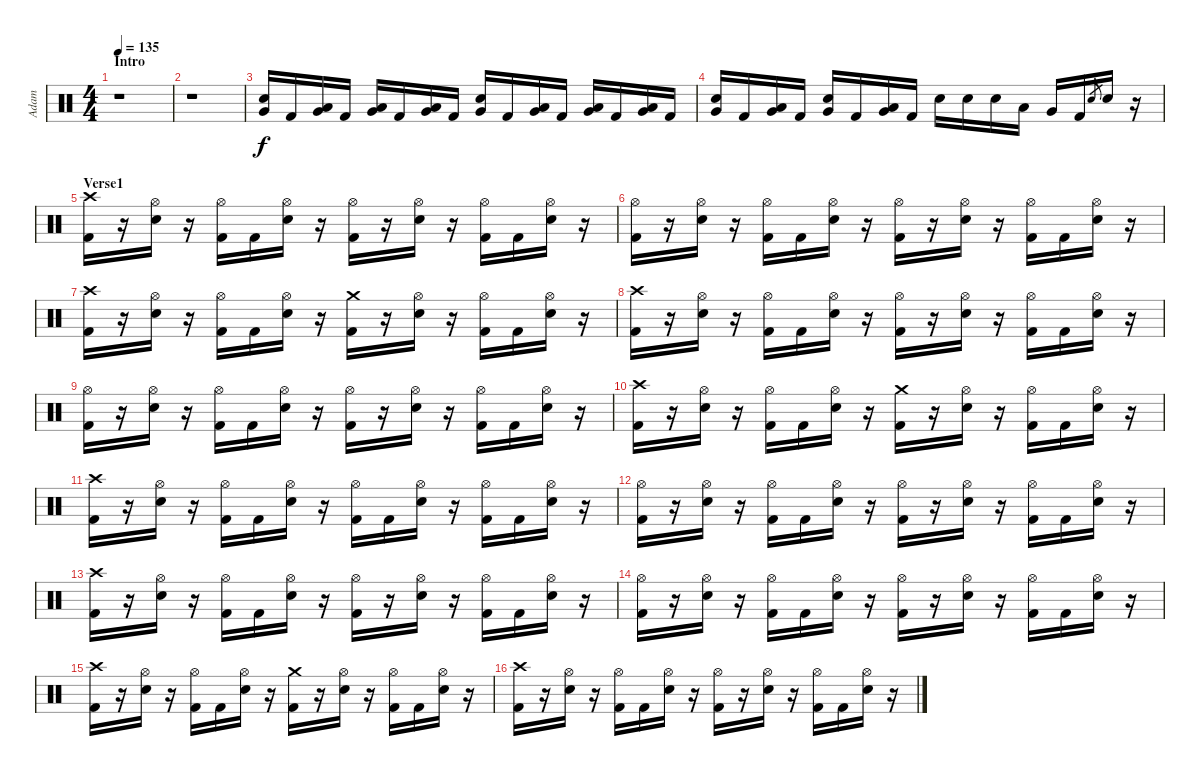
\track ("Adam" "Adam") {instrument percussion}
\staff {score}
\articulation defaults
\ts (4 4)
\section ("" "Intro")
\tempo 135
\clef neutral
\ks c
r.1{dy f} |
r.1 |
("Electric Snare (hit)" "Very Low Tom (hit)").16 "Kick (hit) 2".16 ("Low Tom (hit)" "Very Low Tom (hit)").16 "Kick (hit) 2".16 ("Low Tom (hit)" "Very Low Tom (hit)").16 "Kick (hit) 2".16 ("Low Tom (hit)" "Very Low Tom (hit)").16 "Kick (hit) 2".16 ("Electric Snare (hit)" "Very Low Tom (hit)").16 "Kick (hit) 2".16 ("Low Tom (hit)" "Very Low Tom (hit)").16 "Kick (hit) 2".16 ("Low Tom (hit)" "Very Low Tom (hit)").16 "Kick (hit) 2".16 ("Low Tom (hit)" "Very Low Tom (hit)").16 "Kick (hit) 2".16 |
("Electric Snare (hit)" "Very Low Tom (hit)").16 "Kick (hit) 2".16 ("Low Tom (hit)" "Very Low Tom (hit)").16 "Kick (hit) 2".16 ("Electric Snare (hit)" "Very Low Tom (hit)").16 "Kick (hit) 2".16 ("Low Tom (hit)" "Very Low Tom (hit)").16 "Kick (hit) 2".16 "Electric Snare (hit)".16 "Electric Snare (hit)".16 "Electric Snare (hit)".16 "Low Tom (hit)".16 "Very Low Tom (hit)".16 "Kick (hit) 2".16 "Electric Snare (hit)".8{gr} "Electric Snare (hit)".16 r.16 |
\section ("" "Verse1")
("Crash high (hit)" "Kick (hit) 2").16 r.16 ("Hi-Hat (open)" "Electric Snare (hit)").16 r.16 ("Hi-Hat (open)" "Kick (hit) 2").16 "Kick (hit) 2".16 ("Hi-Hat (open)" "Electric Snare (hit)").16 r.16 ("Hi-Hat (open)" "Kick (hit) 2").16 r.16 ("Hi-Hat (open)" "Electric Snare (hit)").16 r.16 ("Hi-Hat (open)" "Kick (hit) 2").16 "Kick (hit) 2".16 ("Hi-Hat (open)" "Electric Snare (hit)").16 r.16 |
("Hi-Hat (open)" "Kick (hit) 2").16 r.16 ("Hi-Hat (open)" "Electric Snare (hit)").16 r.16 ("Hi-Hat (open)" "Kick (hit) 2").16 "Kick (hit) 2".16 ("Hi-Hat (open)" "Electric Snare (hit)").16 r.16 ("Hi-Hat (open)" "Kick (hit) 2").16 r.16 ("Hi-Hat (open)" "Electric Snare (hit)").16 r.16 ("Hi-Hat (open)" "Kick (hit) 2").16 "Kick (hit) 2".16 ("Hi-Hat (open)" "Electric Snare (hit)").16 r.16 |
("Crash high (hit)" "Kick (hit) 2").16 r.16 ("Hi-Hat (open)" "Electric Snare (hit)").16 r.16 ("Hi-Hat (open)" "Kick (hit) 2").16 "Kick (hit) 2".16 ("Hi-Hat (open)" "Electric Snare (hit)").16 r.16 ("Crash medium (hit)" "Kick (hit) 2").16 r.16 ("Hi-Hat (open)" "Electric Snare (hit)").16 r.16 ("Hi-Hat (open)" "Kick (hit) 2").16 "Kick (hit) 2".16 ("Hi-Hat (open)" "Electric Snare (hit)").16 r.16 |
("Crash high (hit)" "Kick (hit) 2").16 r.16 ("Hi-Hat (open)" "Electric Snare (hit)").16 r.16 ("Hi-Hat (open)" "Kick (hit) 2").16 "Kick (hit) 2".16 ("Hi-Hat (open)" "Electric Snare (hit)").16 r.16 ("Hi-Hat (open)" "Kick (hit) 2").16 r.16 ("Hi-Hat (open)" "Electric Snare (hit)").16 r.16 ("Hi-Hat (open)" "Kick (hit) 2").16 "Kick (hit) 2".16 ("Hi-Hat (open)" "Electric Snare (hit)").16 r.16 |
("Hi-Hat (open)" "Kick (hit) 2").16 r.16 ("Hi-Hat (open)" "Electric Snare (hit)").16 r.16 ("Hi-Hat (open)" "Kick (hit) 2").16 "Kick (hit) 2".16 ("Hi-Hat (open)" "Electric Snare (hit)").16 r.16 ("Hi-Hat (open)" "Kick (hit) 2").16 r.16 ("Hi-Hat (open)" "Electric Snare (hit)").16 r.16 ("Hi-Hat (open)" "Kick (hit) 2").16 "Kick (hit) 2".16 ("Hi-Hat (open)" "Electric Snare (hit)").16 r.16 |
("Crash high (hit)" "Kick (hit) 2").16 r.16 ("Hi-Hat (open)" "Electric Snare (hit)").16 r.16 ("Hi-Hat (open)" "Kick (hit) 2").16 "Kick (hit) 2".16 ("Hi-Hat (open)" "Electric Snare (hit)").16 r.16 ("Crash medium (hit)" "Kick (hit) 2").16 r.16 ("Hi-Hat (open)" "Electric Snare (hit)").16 r.16 ("Hi-Hat (open)" "Kick (hit) 2").16 "Kick (hit) 2".16 ("Hi-Hat (open)" "Electric Snare (hit)").16 r.16 |
("Crash high (hit)" "Kick (hit) 2").16 r.16 ("Hi-Hat (open)" "Electric Snare (hit)").16 r.16 ("Hi-Hat (open)" "Kick (hit) 2").16 "Kick (hit) 2".16 ("Hi-Hat (open)" "Electric Snare (hit)").16 r.16 ("Hi-Hat (open)" "Kick (hit) 2").16 "Kick (hit) 2".16 ("Hi-Hat (open)" "Electric Snare (hit)").16 r.16 ("Hi-Hat (open)" "Kick (hit) 2").16 "Kick (hit) 2".16 ("Hi-Hat (open)" "Electric Snare (hit)").16 r.16 |
("Hi-Hat (open)" "Kick (hit) 2").16 r.16 ("Hi-Hat (open)" "Electric Snare (hit)").16 r.16 ("Hi-Hat (open)" "Kick (hit) 2").16 "Kick (hit) 2".16 ("Hi-Hat (open)" "Electric Snare (hit)").16 r.16 ("Hi-Hat (open)" "Kick (hit) 2").16 r.16 ("Hi-Hat (open)" "Electric Snare (hit)").16 r.16 ("Hi-Hat (open)" "Kick (hit) 2").16 "Kick (hit) 2".16 ("Hi-Hat (open)" "Electric Snare (hit)").16 r.16 |
("Crash high (hit)" "Kick (hit) 2").16 r.16 ("Hi-Hat (open)" "Electric Snare (hit)").16 r.16 ("Hi-Hat (open)" "Kick (hit) 2").16 "Kick (hit) 2".16 ("Hi-Hat (open)" "Electric Snare (hit)").16 r.16 ("Hi-Hat (open)" "Kick (hit) 2").16 r.16 ("Hi-Hat (open)" "Electric Snare (hit)").16 r.16 ("Hi-Hat (open)" "Kick (hit) 2").16 "Kick (hit) 2".16 ("Hi-Hat (open)" "Electric Snare (hit)").16 r.16 |
("Hi-Hat (open)" "Kick (hit) 2").16 r.16 ("Hi-Hat (open)" "Electric Snare (hit)").16 r.16 ("Hi-Hat (open)" "Kick (hit) 2").16 "Kick (hit) 2".16 ("Hi-Hat (open)" "Electric Snare (hit)").16 r.16 ("Hi-Hat (open)" "Kick (hit) 2").16 r.16 ("Hi-Hat (open)" "Electric Snare (hit)").16 r.16 ("Hi-Hat (open)" "Kick (hit) 2").16 "Kick (hit) 2".16 ("Hi-Hat (open)" "Electric Snare (hit)").16 r.16 |
("Crash high (hit)" "Kick (hit) 2").16 r.16 ("Hi-Hat (open)" "Electric Snare (hit)").16 r.16 ("Hi-Hat (open)" "Kick (hit) 2").16 "Kick (hit) 2".16 ("Hi-Hat (open)" "Electric Snare (hit)").16 r.16 ("Crash medium (hit)" "Kick (hit) 2").16 r.16 ("Hi-Hat (open)" "Electric Snare (hit)").16 r.16 ("Hi-Hat (open)" "Kick (hit) 2").16 "Kick (hit) 2".16 ("Hi-Hat (open)" "Electric Snare (hit)").16 r.16 |
("Crash high (hit)" "Kick (hit) 2").16 r.16 ("Hi-Hat (open)" "Electric Snare (hit)").16 r.16 ("Hi-Hat (open)" "Kick (hit) 2").16 "Kick (hit) 2".16 ("Hi-Hat (open)" "Electric Snare (hit)").16 r.16 ("Hi-Hat (open)" "Kick (hit) 2").16 r.16 ("Hi-Hat (open)" "Electric Snare (hit)").16 r.16 ("Hi-Hat (open)" "Kick (hit) 2").16 "Kick (hit) 2".16 ("Hi-Hat (open)" "Electric Snare (hit)").16 r.16
